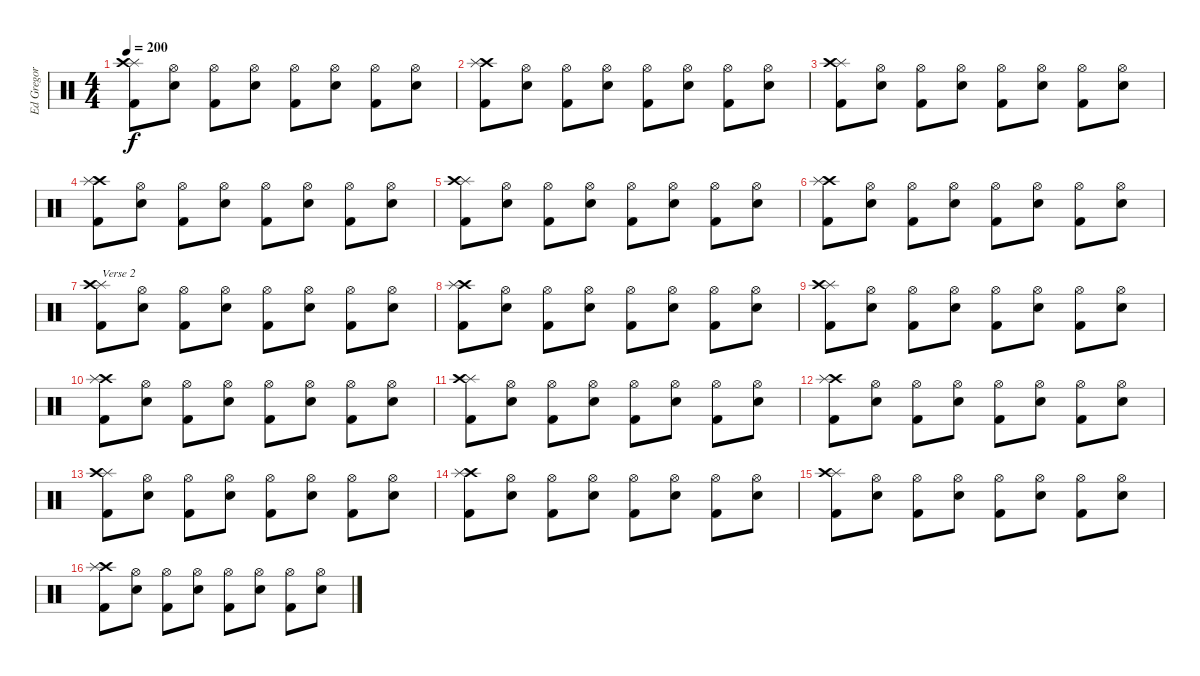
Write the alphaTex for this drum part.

\track ("Ed Gregor" "Ed Gregor") {instrument percussion}
\staff {score}
\articulation defaults
\ts (4 4)
\tempo 200
\clef neutral
\ks c
("Splash (hit)" "Crash high (hit)" "Kick (hit) 2").8{dy f} ("Hi-Hat (open)" "Snare (hit) 2").8 ("Hi-Hat (open)" "Kick (hit) 2").8 ("Hi-Hat (open)" "Snare (hit) 2").8 ("Hi-Hat (open)" "Kick (hit) 2").8 ("Hi-Hat (open)" "Snare (hit) 2").8 ("Hi-Hat (open)" "Kick (hit) 2").8 ("Hi-Hat (open)" "Snare (hit) 2").8 |
("Crash high (hit)" "Splash (hit)" "Kick (hit) 2").8 ("Hi-Hat (open)" "Snare (hit) 2").8 ("Hi-Hat (open)" "Kick (hit) 2").8 ("Hi-Hat (open)" "Snare (hit) 2").8 ("Hi-Hat (open)" "Kick (hit) 2").8 ("Hi-Hat (open)" "Snare (hit) 2").8 ("Hi-Hat (open)" "Kick (hit) 2").8 ("Hi-Hat (open)" "Snare (hit) 2").8 |
("Splash (hit)" "Crash high (hit)" "Kick (hit) 2").8 ("Hi-Hat (open)" "Snare (hit) 2").8 ("Hi-Hat (open)" "Kick (hit) 2").8 ("Hi-Hat (open)" "Snare (hit) 2").8 ("Hi-Hat (open)" "Kick (hit) 2").8 ("Hi-Hat (open)" "Snare (hit) 2").8 ("Hi-Hat (open)" "Kick (hit) 2").8 ("Hi-Hat (open)" "Snare (hit) 2").8 |
("Crash high (hit)" "Splash (hit)" "Kick (hit) 2").8 ("Hi-Hat (open)" "Snare (hit) 2").8 ("Hi-Hat (open)" "Kick (hit) 2").8 ("Hi-Hat (open)" "Snare (hit) 2").8 ("Hi-Hat (open)" "Kick (hit) 2").8 ("Hi-Hat (open)" "Snare (hit) 2").8 ("Hi-Hat (open)" "Kick (hit) 2").8 ("Hi-Hat (open)" "Snare (hit) 2").8 |
("Splash (hit)" "Crash high (hit)" "Kick (hit) 2").8 ("Hi-Hat (open)" "Snare (hit) 2").8 ("Hi-Hat (open)" "Kick (hit) 2").8 ("Hi-Hat (open)" "Snare (hit) 2").8 ("Hi-Hat (open)" "Kick (hit) 2").8 ("Hi-Hat (open)" "Snare (hit) 2").8 ("Hi-Hat (open)" "Kick (hit) 2").8 ("Hi-Hat (open)" "Snare (hit) 2").8 |
("Crash high (hit)" "Splash (hit)" "Kick (hit) 2").8 ("Hi-Hat (open)" "Snare (hit) 2").8 ("Hi-Hat (open)" "Kick (hit) 2").8 ("Hi-Hat (open)" "Snare (hit) 2").8 ("Hi-Hat (open)" "Kick (hit) 2").8 ("Hi-Hat (open)" "Snare (hit) 2").8 ("Hi-Hat (open)" "Kick (hit) 2").8 ("Hi-Hat (open)" "Snare (hit) 2").8 |
("Splash (hit)" "Crash high (hit)" "Kick (hit) 2").8{txt "Verse 2"} ("Hi-Hat (open)" "Snare (hit) 2").8 ("Hi-Hat (open)" "Kick (hit) 2").8 ("Hi-Hat (open)" "Snare (hit) 2").8 ("Hi-Hat (open)" "Kick (hit) 2").8 ("Hi-Hat (open)" "Snare (hit) 2").8 ("Hi-Hat (open)" "Kick (hit) 2").8 ("Hi-Hat (open)" "Snare (hit) 2").8 |
("Crash high (hit)" "Splash (hit)" "Kick (hit) 2").8 ("Hi-Hat (open)" "Snare (hit) 2").8 ("Hi-Hat (open)" "Kick (hit) 2").8 ("Hi-Hat (open)" "Snare (hit) 2").8 ("Hi-Hat (open)" "Kick (hit) 2").8 ("Hi-Hat (open)" "Snare (hit) 2").8 ("Hi-Hat (open)" "Kick (hit) 2").8 ("Hi-Hat (open)" "Snare (hit) 2").8 |
("Splash (hit)" "Crash high (hit)" "Kick (hit) 2").8 ("Hi-Hat (open)" "Snare (hit) 2").8 ("Hi-Hat (open)" "Kick (hit) 2").8 ("Hi-Hat (open)" "Snare (hit) 2").8 ("Hi-Hat (open)" "Kick (hit) 2").8 ("Hi-Hat (open)" "Snare (hit) 2").8 ("Hi-Hat (open)" "Kick (hit) 2").8 ("Hi-Hat (open)" "Snare (hit) 2").8 |
("Crash high (hit)" "Splash (hit)" "Kick (hit) 2").8 ("Hi-Hat (open)" "Snare (hit) 2").8 ("Hi-Hat (open)" "Kick (hit) 2").8 ("Hi-Hat (open)" "Snare (hit) 2").8 ("Hi-Hat (open)" "Kick (hit) 2").8 ("Hi-Hat (open)" "Snare (hit) 2").8 ("Hi-Hat (open)" "Kick (hit) 2").8 ("Hi-Hat (open)" "Snare (hit) 2").8 |
("Splash (hit)" "Crash high (hit)" "Kick (hit) 2").8 ("Hi-Hat (open)" "Snare (hit) 2").8 ("Hi-Hat (open)" "Kick (hit) 2").8 ("Hi-Hat (open)" "Snare (hit) 2").8 ("Hi-Hat (open)" "Kick (hit) 2").8 ("Hi-Hat (open)" "Snare (hit) 2").8 ("Hi-Hat (open)" "Kick (hit) 2").8 ("Hi-Hat (open)" "Snare (hit) 2").8 |
("Crash high (hit)" "Splash (hit)" "Kick (hit) 2").8 ("Hi-Hat (open)" "Snare (hit) 2").8 ("Hi-Hat (open)" "Kick (hit) 2").8 ("Hi-Hat (open)" "Snare (hit) 2").8 ("Hi-Hat (open)" "Kick (hit) 2").8 ("Hi-Hat (open)" "Snare (hit) 2").8 ("Hi-Hat (open)" "Kick (hit) 2").8 ("Hi-Hat (open)" "Snare (hit) 2").8 |
("Splash (hit)" "Crash high (hit)" "Kick (hit) 2").8 ("Hi-Hat (open)" "Snare (hit) 2").8 ("Hi-Hat (open)" "Kick (hit) 2").8 ("Hi-Hat (open)" "Snare (hit) 2").8 ("Hi-Hat (open)" "Kick (hit) 2").8 ("Hi-Hat (open)" "Snare (hit) 2").8 ("Hi-Hat (open)" "Kick (hit) 2").8 ("Hi-Hat (open)" "Snare (hit) 2").8 |
("Crash high (hit)" "Splash (hit)" "Kick (hit) 2").8 ("Hi-Hat (open)" "Snare (hit) 2").8 ("Hi-Hat (open)" "Kick (hit) 2").8 ("Hi-Hat (open)" "Snare (hit) 2").8 ("Hi-Hat (open)" "Kick (hit) 2").8 ("Hi-Hat (open)" "Snare (hit) 2").8 ("Hi-Hat (open)" "Kick (hit) 2").8 ("Hi-Hat (open)" "Snare (hit) 2").8 |
("Splash (hit)" "Crash high (hit)" "Kick (hit) 2").8 ("Hi-Hat (open)" "Snare (hit) 2").8 ("Hi-Hat (open)" "Kick (hit) 2").8 ("Hi-Hat (open)" "Snare (hit) 2").8 ("Hi-Hat (open)" "Kick (hit) 2").8 ("Hi-Hat (open)" "Snare (hit) 2").8 ("Hi-Hat (open)" "Kick (hit) 2").8 ("Hi-Hat (open)" "Snare (hit) 2").8 |
("Crash high (hit)" "Splash (hit)" "Kick (hit) 2").8 ("Hi-Hat (open)" "Snare (hit) 2").8 ("Hi-Hat (open)" "Kick (hit) 2").8 ("Hi-Hat (open)" "Snare (hit) 2").8 ("Hi-Hat (open)" "Kick (hit) 2").8 ("Hi-Hat (open)" "Snare (hit) 2").8 ("Hi-Hat (open)" "Kick (hit) 2").8 ("Hi-Hat (open)" "Snare (hit) 2").8
